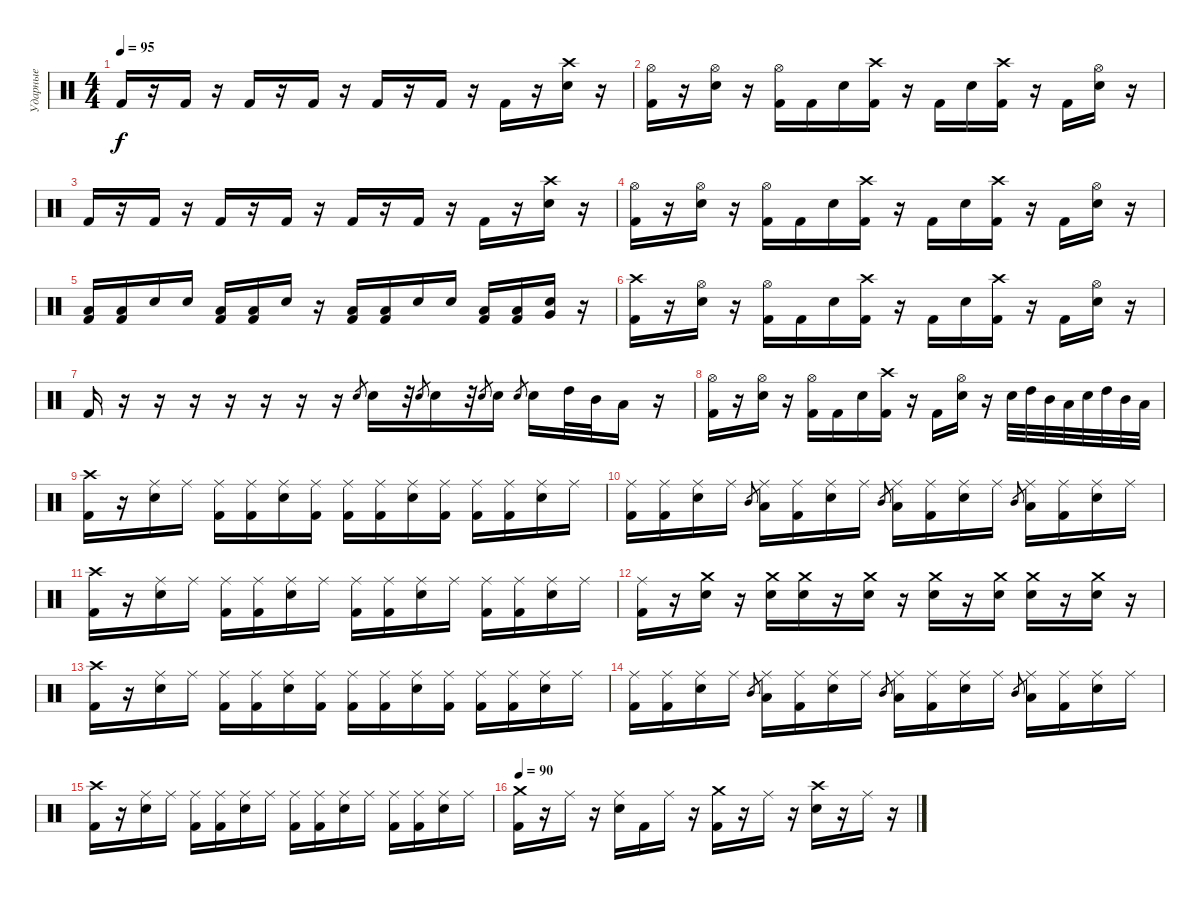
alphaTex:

\track ("Ударные" "Ударные") {instrument percussion}
\staff {score}
\articulation defaults
\ts (4 4)
\tempo 95
\clef neutral
\ks c "Kick (hit) 2".16{dy f}
r.16 "Kick (hit) 2".16 r.16 "Kick (hit) 2".16 r.16 "Kick (hit) 2".16 r.16 "Kick (hit) 2".16 r.16 "Kick (hit) 2".16 r.16 "Kick (hit) 2".16 r.16 ("Crash high (hit)" "Electric Snare (hit)").16 r.16 |
("Hi-Hat (open)" "Kick (hit) 2").16 r.16 ("Hi-Hat (open)" "Electric Snare (hit)").16 r.16 ("Hi-Hat (open)" "Kick (hit) 2").16 "Kick (hit) 2".16 "Electric Snare (hit)".16 ("Crash high (hit)" "Kick (hit) 2").16 r.16 "Kick (hit) 2".16 "Electric Snare (hit)".16 ("Crash high (hit)" "Kick (hit) 2").16 r.16 "Kick (hit) 2".16 ("Hi-Hat (open)" "Electric Snare (hit)").16 r.16 |
"Kick (hit) 2".16 r.16 "Kick (hit) 2".16 r.16 "Kick (hit) 2".16 r.16 "Kick (hit) 2".16 r.16 "Kick (hit) 2".16 r.16 "Kick (hit) 2".16 r.16 "Kick (hit) 2".16 r.16 ("Crash high (hit)" "Electric Snare (hit)").16 r.16 |
("Hi-Hat (open)" "Kick (hit) 2").16 r.16 ("Hi-Hat (open)" "Electric Snare (hit)").16 r.16 ("Hi-Hat (open)" "Kick (hit) 2").16 "Kick (hit) 2".16 "Electric Snare (hit)".16 ("Crash high (hit)" "Kick (hit) 2").16 r.16 "Kick (hit) 2".16 "Electric Snare (hit)".16 ("Crash high (hit)" "Kick (hit) 2").16 r.16 "Kick (hit) 2".16 ("Hi-Hat (open)" "Electric Snare (hit)").16 r.16 |
("Low Tom (hit)" "Kick (hit) 2").16 ("Low Tom (hit)" "Kick (hit) 2").16 "Electric Snare (hit)".16 "Electric Snare (hit)".16 ("Low Tom (hit)" "Kick (hit) 2").16 ("Low Tom (hit)" "Kick (hit) 2").16 "Electric Snare (hit)".16 r.16 ("Low Tom (hit)" "Kick (hit) 2").16 ("Low Tom (hit)" "Kick (hit) 2").16 "Electric Snare (hit)".16 "Electric Snare (hit)".16 ("Low Tom (hit)" "Kick (hit) 2").16 ("Low Tom (hit)" "Kick (hit) 2").16 ("Very Low Tom (hit)" "Electric Snare (hit)").16 r.16 |
("Crash high (hit)" "Kick (hit) 2").16 r.16 ("Hi-Hat (open)" "Electric Snare (hit)").16 r.16 ("Hi-Hat (open)" "Kick (hit) 2").16 "Kick (hit) 2".16 "Electric Snare (hit)".16 ("Crash high (hit)" "Kick (hit) 2").16 r.16 "Kick (hit) 2".16 "Electric Snare (hit)".16 ("Crash high (hit)" "Kick (hit) 2").16 r.16 "Kick (hit) 2".16 ("Hi-Hat (open)" "Electric Snare (hit)").16 r.16 |
"Kick (hit) 2".16 r.16 r.16 r.16 r.16 r.16 r.16 r.16 "Electric Snare (hit)".8{gr} "Electric Snare (hit)".16 r.32 "Electric Snare (hit)".8{gr} "Electric Snare (hit)".16 r.32 "Electric Snare (hit)".8{gr} "Electric Snare (hit)".16 "Electric Snare (hit)".8{gr} "Electric Snare (hit)".16 "High Tom (hit)".32 "Mid Tom (hit)".32 "Low Tom (hit)".16 r.16 |
("Hi-Hat (open)" "Kick (hit) 2").16 r.16 ("Hi-Hat (open)" "Electric Snare (hit)").16 r.16 ("Hi-Hat (open)" "Kick (hit) 2").16 "Kick (hit) 2".16 "Electric Snare (hit)".16 ("Crash high (hit)" "Kick (hit) 2").16 r.16 "Kick (hit) 2".16 ("Hi-Hat (open)" "Electric Snare (hit)").16 r.16 "Electric Snare (hit)".32 "High Tom (hit)".32 "Mid Tom (hit)".32 "Low Tom (hit)".32 "Electric Snare (hit)".32 "High Tom (hit)".32 "Mid Tom (hit)".32 "Low Tom (hit)".32 |
("Crash high (hit)" "Kick (hit) 2").16 r.16 ("Ride (middle)" "Electric Snare (hit)").16 "Ride (middle)".16 ("Ride (middle)" "Kick (hit) 2").16 ("Ride (middle)" "Kick (hit) 2").16 ("Ride (middle)" "Electric Snare (hit)").16 ("Ride (middle)" "Kick (hit) 2").16 ("Ride (middle)" "Kick (hit) 2").16 ("Ride (middle)" "Kick (hit) 2").16 ("Ride (middle)" "Electric Snare (hit)").16 ("Ride (middle)" "Kick (hit) 2").16 ("Ride (middle)" "Kick (hit) 2").16 ("Ride (middle)" "Kick (hit) 2").16 ("Ride (middle)" "Electric Snare (hit)").16 "Ride (middle)".16 |
("Ride (middle)" "Kick (hit) 2").16 ("Ride (middle)" "Kick (hit) 2").16 ("Ride (middle)" "Electric Snare (hit)").16 "Ride (middle)".16 "Mid Tom (hit)".8{gr} ("Ride (middle)" "Low Tom (hit)").16 ("Ride (middle)" "Kick (hit) 2").16 ("Ride (middle)" "Electric Snare (hit)").16 "Ride (middle)".16 "Mid Tom (hit)".8{gr} ("Ride (middle)" "Low Tom (hit)").16 ("Ride (middle)" "Kick (hit) 2").16 ("Ride (middle)" "Electric Snare (hit)").16 "Ride (middle)".16 "Mid Tom (hit)".8{gr} ("Ride (middle)" "Low Tom (hit)").16 ("Ride (middle)" "Kick (hit) 2").16 ("Ride (middle)" "Electric Snare (hit)").16 "Ride (middle)".16 |
("Crash high (hit)" "Kick (hit) 2").16 r.16 ("Ride (middle)" "Electric Snare (hit)").16 "Ride (middle)".16 ("Ride (middle)" "Kick (hit) 2").16 ("Ride (middle)" "Kick (hit) 2").16 ("Ride (middle)" "Electric Snare (hit)").16 "Ride (middle)".16 ("Ride (middle)" "Kick (hit) 2").16 ("Ride (middle)" "Kick (hit) 2").16 ("Ride (middle)" "Electric Snare (hit)").16 "Ride (middle)".16 ("Ride (middle)" "Kick (hit) 2").16 ("Ride (middle)" "Kick (hit) 2").16 ("Ride (middle)" "Electric Snare (hit)").16 "Ride (middle)".16 |
("Ride (middle)" "Kick (hit) 2").16 r.16 ("Crash medium (hit)" "Electric Snare (hit)").16 r.16 ("Crash medium (hit)" "Electric Snare (hit)").16 ("Crash medium (hit)" "Electric Snare (hit)").16 r.16 ("Crash medium (hit)" "Electric Snare (hit)").16 r.16 ("Crash medium (hit)" "Electric Snare (hit)").16 r.16 ("Crash medium (hit)" "Electric Snare (hit)").16 ("Crash medium (hit)" "Electric Snare (hit)").16 r.16 ("Crash medium (hit)" "Electric Snare (hit)").16 r.16 |
("Crash high (hit)" "Kick (hit) 2").16 r.16 ("Ride (middle)" "Electric Snare (hit)").16 "Ride (middle)".16 ("Ride (middle)" "Kick (hit) 2").16 ("Ride (middle)" "Kick (hit) 2").16 ("Ride (middle)" "Electric Snare (hit)").16 ("Ride (middle)" "Kick (hit) 2").16 ("Ride (middle)" "Kick (hit) 2").16 ("Ride (middle)" "Kick (hit) 2").16 ("Ride (middle)" "Electric Snare (hit)").16 ("Ride (middle)" "Kick (hit) 2").16 ("Ride (middle)" "Kick (hit) 2").16 ("Ride (middle)" "Kick (hit) 2").16 ("Ride (middle)" "Electric Snare (hit)").16 "Ride (middle)".16 |
("Ride (middle)" "Kick (hit) 2").16 ("Ride (middle)" "Kick (hit) 2").16 ("Ride (middle)" "Electric Snare (hit)").16 "Ride (middle)".16 "Mid Tom (hit)".8{gr} ("Ride (middle)" "Low Tom (hit)").16 ("Ride (middle)" "Kick (hit) 2").16 ("Ride (middle)" "Electric Snare (hit)").16 "Ride (middle)".16 "Mid Tom (hit)".8{gr} ("Ride (middle)" "Low Tom (hit)").16 ("Ride (middle)" "Kick (hit) 2").16 ("Ride (middle)" "Electric Snare (hit)").16 "Ride (middle)".16 "Mid Tom (hit)".8{gr} ("Ride (middle)" "Low Tom (hit)").16 ("Ride (middle)" "Kick (hit) 2").16 ("Ride (middle)" "Electric Snare (hit)").16 "Ride (middle)".16 |
("Crash high (hit)" "Kick (hit) 2").16 r.16 ("Ride (middle)" "Electric Snare (hit)").16 "Ride (middle)".16 ("Ride (middle)" "Kick (hit) 2").16 ("Ride (middle)" "Kick (hit) 2").16 ("Ride (middle)" "Electric Snare (hit)").16 "Ride (middle)".16 ("Ride (middle)" "Kick (hit) 2").16 ("Ride (middle)" "Kick (hit) 2").16 ("Ride (middle)" "Electric Snare (hit)").16 "Ride (middle)".16 ("Ride (middle)" "Kick (hit) 2").16 ("Ride (middle)" "Kick (hit) 2").16 ("Ride (middle)" "Electric Snare (hit)").16 "Ride (middle)".16 |
\tempo 90
("Crash medium (hit)" "Kick (hit) 2").16 r.16 "Ride (middle)".16 r.16 ("Ride (middle)" "Electric Snare (hit)").16 "Kick (hit) 2".16 "Ride (middle)".16 r.16 ("Crash medium (hit)" "Kick (hit) 2").16 r.16 "Ride (middle)".16 r.16 ("Crash high (hit)" "Electric Snare (hit)").16 r.16 "Ride (middle)".16 r.16
